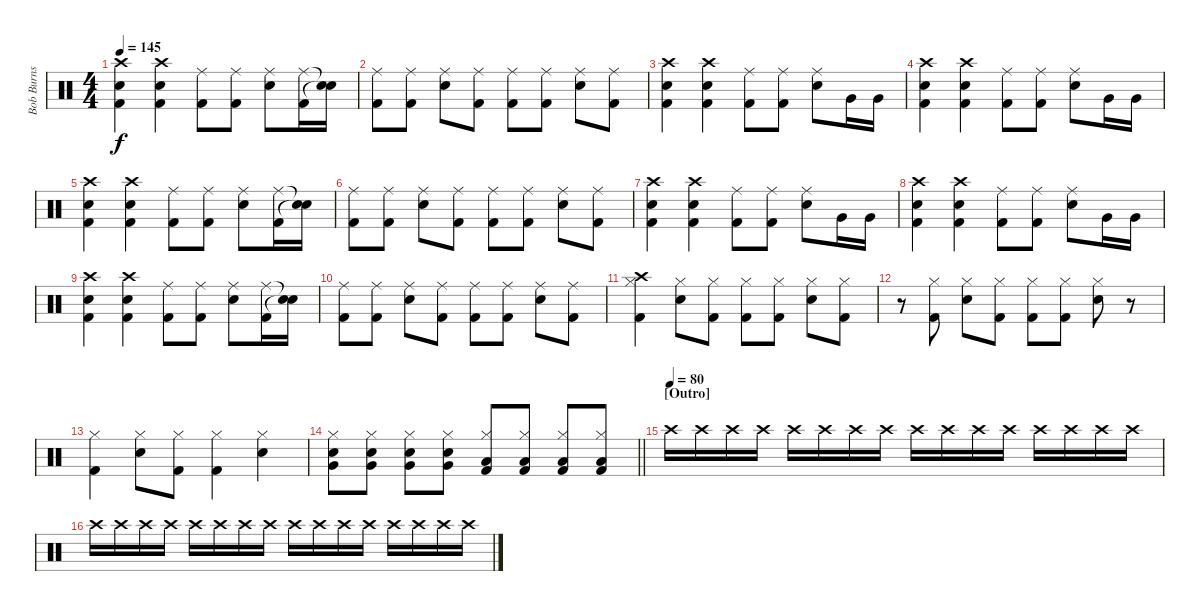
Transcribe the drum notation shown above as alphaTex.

\track ("Bob Burns (Drums)" "Bob Burns ") {instrument percussion}
\staff {score}
\articulation defaults
\ts (4 4)
\tempo 145
\clef neutral
\ks c
("Crash high (hit)" "Electric Snare (hit)" "Kick (hit) 2").4{dy f} ("Crash high (hit)" "Electric Snare (hit)" "Kick (hit) 2").4 ("Ride (middle)" "Kick (hit) 2").8 ("Ride (middle)" "Kick (hit) 2").8 ("Ride (middle)" "Electric Snare (hit)").8 ("Ride (middle)" "Kick (hit) 2").16 ("Snare (hit)"{t} "Snare (hit)"{t}).16 |
("Ride (middle)" "Kick (hit) 2").8 ("Ride (middle)" "Kick (hit) 2").8 ("Ride (middle)" "Electric Snare (hit)").8 ("Ride (middle)" "Kick (hit) 2").8 ("Ride (middle)" "Kick (hit) 2").8 ("Ride (middle)" "Kick (hit) 2").8 ("Ride (middle)" "Electric Snare (hit)").8 ("Ride (middle)" "Kick (hit) 2").8 |
("Crash high (hit)" "Electric Snare (hit)" "Kick (hit) 2").4 ("Crash high (hit)" "Electric Snare (hit)" "Kick (hit) 2").4 ("Ride (middle)" "Kick (hit) 2").8 ("Ride (middle)" "Kick (hit) 2").8 ("Ride (middle)" "Electric Snare (hit)").8 "Very Low Tom (hit)".16 "Very Low Tom (hit)".16 |
("Crash high (hit)" "Electric Snare (hit)" "Kick (hit) 2").4 ("Crash high (hit)" "Electric Snare (hit)" "Kick (hit) 2").4 ("Ride (middle)" "Kick (hit) 2").8 ("Ride (middle)" "Kick (hit) 2").8 ("Ride (middle)" "Electric Snare (hit)").8 "Very Low Tom (hit)".16 "Very Low Tom (hit)".16 |
("Crash high (hit)" "Electric Snare (hit)" "Kick (hit) 2").4 ("Crash high (hit)" "Electric Snare (hit)" "Kick (hit) 2").4 ("Ride (middle)" "Kick (hit) 2").8 ("Ride (middle)" "Kick (hit) 2").8 ("Ride (middle)" "Electric Snare (hit)").8 ("Ride (middle)" "Kick (hit) 2").16 ("Snare (hit)"{t} "Snare (hit)"{t}).16 |
("Ride (middle)" "Kick (hit) 2").8 ("Ride (middle)" "Kick (hit) 2").8 ("Ride (middle)" "Electric Snare (hit)").8 ("Ride (middle)" "Kick (hit) 2").8 ("Ride (middle)" "Kick (hit) 2").8 ("Ride (middle)" "Kick (hit) 2").8 ("Ride (middle)" "Electric Snare (hit)").8 ("Ride (middle)" "Kick (hit) 2").8 |
("Crash high (hit)" "Electric Snare (hit)" "Kick (hit) 2").4 ("Crash high (hit)" "Electric Snare (hit)" "Kick (hit) 2").4 ("Ride (middle)" "Kick (hit) 2").8 ("Ride (middle)" "Kick (hit) 2").8 ("Ride (middle)" "Electric Snare (hit)").8 "Very Low Tom (hit)".16 "Very Low Tom (hit)".16 |
("Crash high (hit)" "Electric Snare (hit)" "Kick (hit) 2").4 ("Crash high (hit)" "Electric Snare (hit)" "Kick (hit) 2").4 ("Ride (middle)" "Kick (hit) 2").8 ("Ride (middle)" "Kick (hit) 2").8 ("Ride (middle)" "Electric Snare (hit)").8 "Very Low Tom (hit)".16 "Very Low Tom (hit)".16 |
("Crash high (hit)" "Electric Snare (hit)" "Kick (hit) 2").4 ("Crash high (hit)" "Electric Snare (hit)" "Kick (hit) 2").4 ("Ride (middle)" "Kick (hit) 2").8 ("Ride (middle)" "Kick (hit) 2").8 ("Ride (middle)" "Electric Snare (hit)").8 ("Ride (middle)" "Kick (hit) 2").16 ("Snare (hit)"{t} "Snare (hit)"{t}).16 |
("Ride (middle)" "Kick (hit) 2").8 ("Ride (middle)" "Kick (hit) 2").8 ("Ride (middle)" "Electric Snare (hit)").8 ("Ride (middle)" "Kick (hit) 2").8 ("Ride (middle)" "Kick (hit) 2").8 ("Ride (middle)" "Kick (hit) 2").8 ("Ride (middle)" "Electric Snare (hit)").8 ("Ride (middle)" "Kick (hit) 2").8 |
("Hi-Hat (closed)" "Crash high (hit)" "Kick (hit) 2").4 ("Hi-Hat (closed)" "Electric Snare (hit)").8 ("Hi-Hat (closed)" "Kick (hit) 2").8 ("Hi-Hat (closed)" "Kick (hit) 2").8 ("Hi-Hat (closed)" "Kick (hit) 2").8 ("Hi-Hat (closed)" "Electric Snare (hit)").8 ("Hi-Hat (closed)" "Kick (hit) 2").8 |
r.8 ("Hi-Hat (closed)" "Kick (hit) 2").8 ("Hi-Hat (closed)" "Electric Snare (hit)").8 ("Hi-Hat (closed)" "Kick (hit) 2").8 ("Hi-Hat (closed)" "Kick (hit) 2").8 ("Hi-Hat (closed)" "Kick (hit) 2").8 ("Hi-Hat (closed)" "Electric Snare (hit)").8 r.8 |
("Hi-Hat (closed)" "Kick (hit) 2").4 ("Hi-Hat (closed)" "Electric Snare (hit)").8 ("Hi-Hat (closed)" "Kick (hit) 2").8 ("Hi-Hat (closed)" "Kick (hit) 2").4 ("Hi-Hat (closed)" "Electric Snare (hit)").4 |
\barLineRight lightlight
("Hi-Hat (closed)" "Electric Snare (hit)" "Very Low Tom (hit)").8 ("Hi-Hat (closed)" "Electric Snare (hit)" "Very Low Tom (hit)").8 ("Hi-Hat (closed)" "Electric Snare (hit)" "Very Low Tom (hit)").8 ("Hi-Hat (closed)" "Electric Snare (hit)" "Very Low Tom (hit)").8 ("Hi-Hat (closed)" "Kick (hit) 2" "Low Floor Tom (hit)").8 ("Hi-Hat (closed)" "Kick (hit) 2" "Low Floor Tom (hit)").8 ("Hi-Hat (closed)" "Kick (hit) 2" "Low Floor Tom (hit)").8 ("Hi-Hat (closed)" "Kick (hit) 2" "Low Floor Tom (hit)").8 |
\section ("" "[Outro]")
\tempo (80)
"Crash high (hit)".16 "Crash high (hit)".16 "Crash high (hit)".16 "Crash high (hit)".16 "Crash high (hit)".16 "Crash high (hit)".16 "Crash high (hit)".16 "Crash high (hit)".16 "Crash high (hit)".16 "Crash high (hit)".16 "Crash high (hit)".16 "Crash high (hit)".16 "Crash high (hit)".16 "Crash high (hit)".16 "Crash high (hit)".16 "Crash high (hit)".16 |
"Crash high (hit)".16 "Crash high (hit)".16 "Crash high (hit)".16 "Crash high (hit)".16 "Crash high (hit)".16 "Crash high (hit)".16 "Crash high (hit)".16 "Crash high (hit)".16 "Crash high (hit)".16 "Crash high (hit)".16 "Crash high (hit)".16 "Crash high (hit)".16 "Crash high (hit)".16 "Crash high (hit)".16 "Crash high (hit)".16 "Crash high (hit)".16
